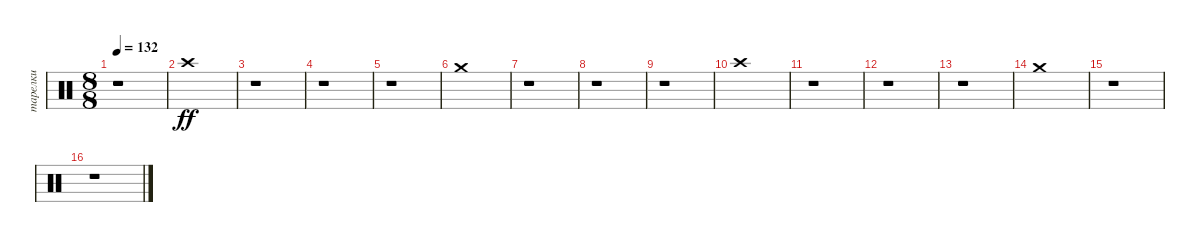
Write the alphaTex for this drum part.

\track ("тарелки" "тарелки") {instrument percussion}
\staff {score}
\articulation defaults
\ts (8 8)
\tempo 132
\clef neutral
\ks c
r.1{dy ff} |
"Crash high (hit)".1 |
r.1 |
r.1 |
r.1 |
"Crash medium (hit)".1 |
r.1 |
r.1 |
r.1 |
"Crash high (hit)".1 |
r.1 |
r.1 |
r.1 |
"Crash medium (hit)".1 |
r.1 |
r.1
